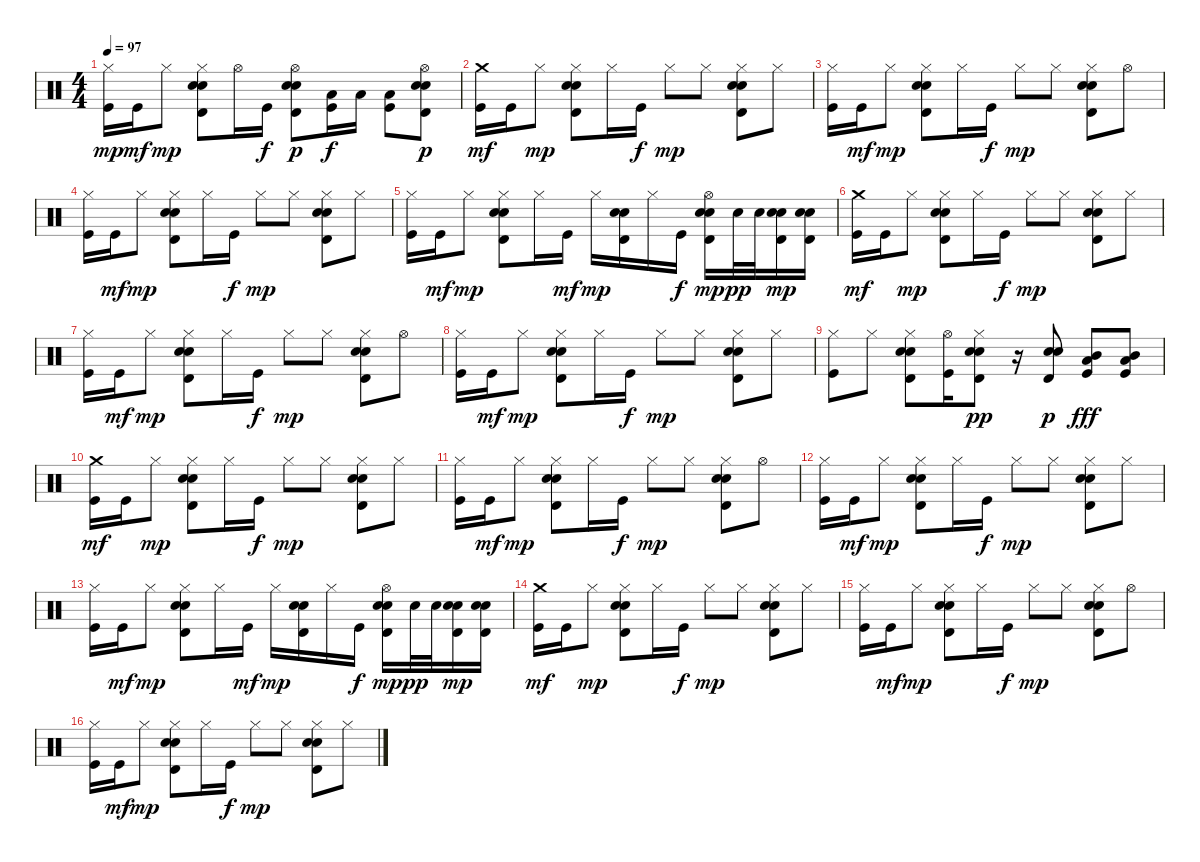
\track "" {instrument percussion}
\staff {score}
\articulation defaults
\ts (4 4)
\tempo 97
\clef neutral
\ks c
("Kick (hit)" "Hi-Hat (closed)").16{dy mp} "Kick (hit)".16{dy mf} "Hi-Hat (closed)".8{dy mp} ("Snare (hit) 2" "Electric Snare (hit)" "Timbale high (hit)" "Hi-Hat (closed)").8 "Hi-Hat (open)".16 "Kick (hit)".16{dy f} ("Snare (hit) 2" "Electric Snare (hit)" "Timbale high (hit)" "Hi-Hat (open)").8{dy p} ("Kick (hit)" "Low Tom (hit)").16{dy f} "Low Tom (hit)".16 ("Kick (hit)" "Low Tom (hit)").8 ("Snare (hit) 2" "Electric Snare (hit)" "Timbale high (hit)" "Hi-Hat (open)").8{dy p} |
\section ("" "")
("Kick (hit)" "Crash medium (hit)").16{dy mf} "Kick (hit)".16 "Hi-Hat (closed)".8{dy mp} ("Snare (hit) 2" "Electric Snare (hit)" "Timbale high (hit)" "Hi-Hat (closed)").8 "Hi-Hat (closed)".16 "Kick (hit)".16{dy f} "Hi-Hat (closed)".8{dy mp} "Hi-Hat (closed)".8 ("Snare (hit) 2" "Electric Snare (hit)" "Timbale high (hit)" "Hi-Hat (closed)").8 "Hi-Hat (closed)".8 |
("Kick (hit)" "Hi-Hat (closed)").16 "Kick (hit)".16{dy mf} "Hi-Hat (closed)".8{dy mp} ("Snare (hit) 2" "Electric Snare (hit)" "Timbale high (hit)" "Hi-Hat (closed)").8 "Hi-Hat (closed)".16 "Kick (hit)".16{dy f} "Hi-Hat (closed)".8{dy mp} "Hi-Hat (closed)".8 ("Snare (hit) 2" "Electric Snare (hit)" "Timbale high (hit)" "Hi-Hat (closed)").8 "Hi-Hat (open)".8 |
("Kick (hit)" "Hi-Hat (closed)").16 "Kick (hit)".16{dy mf} "Hi-Hat (closed)".8{dy mp} ("Snare (hit) 2" "Electric Snare (hit)" "Timbale high (hit)" "Hi-Hat (closed)").8 "Hi-Hat (closed)".16 "Kick (hit)".16{dy f} "Hi-Hat (closed)".8{dy mp} "Hi-Hat (closed)".8 ("Snare (hit) 2" "Electric Snare (hit)" "Timbale high (hit)" "Hi-Hat (closed)").8 "Hi-Hat (closed)".8 |
("Kick (hit)" "Hi-Hat (closed)").16 "Kick (hit)".16{dy mf} "Hi-Hat (closed)".8{dy mp} ("Snare (hit) 2" "Electric Snare (hit)" "Timbale high (hit)" "Hi-Hat (closed)").8 "Hi-Hat (closed)".16 "Kick (hit)".16{dy mf} "Hi-Hat (closed)".16{dy mp} ("Snare (hit) 2" "Electric Snare (hit)" "Timbale high (hit)").16 "Hi-Hat (closed)".16 "Kick (hit)".16{dy f} ("Snare (hit) 2" "Electric Snare (hit)" "Timbale high (hit)" "Hi-Hat (open)").16{dy mp} "Snare (hit) 2".32{dy pp} "Snare (hit) 2".32 ("Snare (hit) 2" "Electric Snare (hit)" "Timbale high (hit)").16{dy mp} ("Snare (hit) 2" "Electric Snare (hit)" "Timbale high (hit)").16 |
\section ("" "")
("Kick (hit)" "Crash medium (hit)").16{dy mf} "Kick (hit)".16 "Hi-Hat (closed)".8{dy mp} ("Snare (hit) 2" "Electric Snare (hit)" "Timbale high (hit)" "Hi-Hat (closed)").8 "Hi-Hat (closed)".16 "Kick (hit)".16{dy f} "Hi-Hat (closed)".8{dy mp} "Hi-Hat (closed)".8 ("Snare (hit) 2" "Electric Snare (hit)" "Timbale high (hit)" "Hi-Hat (closed)").8 "Hi-Hat (closed)".8 |
("Kick (hit)" "Hi-Hat (closed)").16 "Kick (hit)".16{dy mf} "Hi-Hat (closed)".8{dy mp} ("Snare (hit) 2" "Electric Snare (hit)" "Timbale high (hit)" "Hi-Hat (closed)").8 "Hi-Hat (closed)".16 "Kick (hit)".16{dy f} "Hi-Hat (closed)".8{dy mp} "Hi-Hat (closed)".8 ("Snare (hit) 2" "Electric Snare (hit)" "Timbale high (hit)" "Hi-Hat (closed)").8 "Hi-Hat (open)".8 |
("Kick (hit)" "Hi-Hat (closed)").16 "Kick (hit)".16{dy mf} "Hi-Hat (closed)".8{dy mp} ("Snare (hit) 2" "Electric Snare (hit)" "Timbale high (hit)" "Hi-Hat (closed)").8 "Hi-Hat (closed)".16 "Kick (hit)".16{dy f} "Hi-Hat (closed)".8{dy mp} "Hi-Hat (closed)".8 ("Snare (hit) 2" "Electric Snare (hit)" "Timbale high (hit)" "Hi-Hat (closed)").8 "Hi-Hat (closed)".8 |
("Kick (hit)" "Hi-Hat (closed)").8 "Hi-Hat (closed)".8 ("Snare (hit) 2" "Electric Snare (hit)" "Timbale high (hit)" "Hi-Hat (closed)").8 ("Kick (hit)" "Hi-Hat (open)").16 ("Snare (hit) 2" "Electric Snare (hit)" "Timbale high (hit)" "Hi-Hat (closed)").8{dy pp} r.16 ("Snare (hit) 2" "Electric Snare (hit)" "Timbale high (hit)").8{dy p} ("Kick (hit)" "Mid Tom (hit)" "Low Tom (hit)").8{dy fff} ("Kick (hit)" "Mid Tom (hit)" "Low Tom (hit)").8 |
\section ("" "")
("Kick (hit)" "Crash medium (hit)").16{dy mf} "Kick (hit)".16 "Hi-Hat (closed)".8{dy mp} ("Snare (hit) 2" "Electric Snare (hit)" "Timbale high (hit)" "Hi-Hat (closed)").8 "Hi-Hat (closed)".16 "Kick (hit)".16{dy f} "Hi-Hat (closed)".8{dy mp} "Hi-Hat (closed)".8 ("Snare (hit) 2" "Electric Snare (hit)" "Timbale high (hit)" "Hi-Hat (closed)").8 "Hi-Hat (closed)".8 |
("Kick (hit)" "Hi-Hat (closed)").16 "Kick (hit)".16{dy mf} "Hi-Hat (closed)".8{dy mp} ("Snare (hit) 2" "Electric Snare (hit)" "Timbale high (hit)" "Hi-Hat (closed)").8 "Hi-Hat (closed)".16 "Kick (hit)".16{dy f} "Hi-Hat (closed)".8{dy mp} "Hi-Hat (closed)".8 ("Snare (hit) 2" "Electric Snare (hit)" "Timbale high (hit)" "Hi-Hat (closed)").8 "Hi-Hat (open)".8 |
("Kick (hit)" "Hi-Hat (closed)").16 "Kick (hit)".16{dy mf} "Hi-Hat (closed)".8{dy mp} ("Snare (hit) 2" "Electric Snare (hit)" "Timbale high (hit)" "Hi-Hat (closed)").8 "Hi-Hat (closed)".16 "Kick (hit)".16{dy f} "Hi-Hat (closed)".8{dy mp} "Hi-Hat (closed)".8 ("Snare (hit) 2" "Electric Snare (hit)" "Timbale high (hit)" "Hi-Hat (closed)").8 "Hi-Hat (closed)".8 |
("Kick (hit)" "Hi-Hat (closed)").16 "Kick (hit)".16{dy mf} "Hi-Hat (closed)".8{dy mp} ("Snare (hit) 2" "Electric Snare (hit)" "Timbale high (hit)" "Hi-Hat (closed)").8 "Hi-Hat (closed)".16 "Kick (hit)".16{dy mf} "Hi-Hat (closed)".16{dy mp} ("Snare (hit) 2" "Electric Snare (hit)" "Timbale high (hit)").16 "Hi-Hat (closed)".16 "Kick (hit)".16{dy f} ("Snare (hit) 2" "Electric Snare (hit)" "Timbale high (hit)" "Hi-Hat (open)").16{dy mp} "Snare (hit) 2".32{dy pp} "Snare (hit) 2".32 ("Snare (hit) 2" "Electric Snare (hit)" "Timbale high (hit)").16{dy mp} ("Snare (hit) 2" "Electric Snare (hit)" "Timbale high (hit)").16 |
\section ("" "")
("Kick (hit)" "Crash medium (hit)").16{dy mf} "Kick (hit)".16 "Hi-Hat (closed)".8{dy mp} ("Snare (hit) 2" "Electric Snare (hit)" "Timbale high (hit)" "Hi-Hat (closed)").8 "Hi-Hat (closed)".16 "Kick (hit)".16{dy f} "Hi-Hat (closed)".8{dy mp} "Hi-Hat (closed)".8 ("Snare (hit) 2" "Electric Snare (hit)" "Timbale high (hit)" "Hi-Hat (closed)").8 "Hi-Hat (closed)".8 |
("Kick (hit)" "Hi-Hat (closed)").16 "Kick (hit)".16{dy mf} "Hi-Hat (closed)".8{dy mp} ("Snare (hit) 2" "Electric Snare (hit)" "Timbale high (hit)" "Hi-Hat (closed)").8 "Hi-Hat (closed)".16 "Kick (hit)".16{dy f} "Hi-Hat (closed)".8{dy mp} "Hi-Hat (closed)".8 ("Snare (hit) 2" "Electric Snare (hit)" "Timbale high (hit)" "Hi-Hat (closed)").8 "Hi-Hat (open)".8 |
("Kick (hit)" "Hi-Hat (closed)").16 "Kick (hit)".16{dy mf} "Hi-Hat (closed)".8{dy mp} ("Snare (hit) 2" "Electric Snare (hit)" "Timbale high (hit)" "Hi-Hat (closed)").8 "Hi-Hat (closed)".16 "Kick (hit)".16{dy f} "Hi-Hat (closed)".8{dy mp} "Hi-Hat (closed)".8 ("Snare (hit) 2" "Electric Snare (hit)" "Timbale high (hit)" "Hi-Hat (closed)").8 "Hi-Hat (closed)".8
